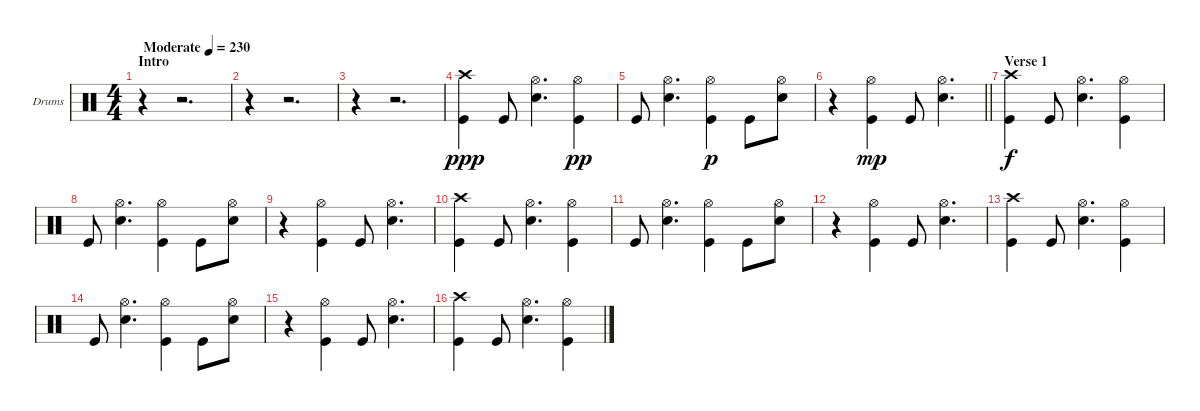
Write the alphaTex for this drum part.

\bracketExtendMode groupsimilarinstruments
\firstSystemTrackNameOrientation horizontal
\otherSystemsTrackNameOrientation horizontal
\track ("Drumkit" "Drums") {instrument percussion}
\staff {score}
\articulation defaults
\ts (4 4)
\beaming (8 2 2 2 2)
\section ("" "Intro")
\tempo (230 "Moderate")
\clef neutral
\ks c
r.4{dy ppp} r.2{d} |
r.4 r.2{d} |
r.4 r.2{d} |
("Crash high (hit)" "Kick (hit)").4 "Kick (hit)".8 ("Hi-Hat (open)" "Snare (hit) 2").4{d} ("Hi-Hat (open)" "Kick (hit)").4{dy pp} |
"Kick (hit)".8 ("Hi-Hat (open)" "Snare (hit) 2").4{d} ("Hi-Hat (open)" "Kick (hit)").4{dy p} "Kick (hit)".8 ("Hi-Hat (open)" "Snare (hit) 2").8 |
\barLineRight lightlight
r.4 ("Hi-Hat (open)" "Kick (hit)").4{dy mp} "Kick (hit)".8 ("Hi-Hat (open)" "Snare (hit) 2").4{d} |
\section ("" "Verse 1")
("Crash high (hit)" "Kick (hit)").4{dy f} "Kick (hit)".8 ("Hi-Hat (open)" "Snare (hit) 2").4{d} ("Hi-Hat (open)" "Kick (hit)").4 |
"Kick (hit)".8 ("Hi-Hat (open)" "Snare (hit) 2").4{d} ("Hi-Hat (open)" "Kick (hit)").4 "Kick (hit)".8 ("Hi-Hat (open)" "Snare (hit) 2").8 |
r.4 ("Hi-Hat (open)" "Kick (hit)").4 "Kick (hit)".8 ("Hi-Hat (open)" "Snare (hit) 2").4{d} |
("Crash high (hit)" "Kick (hit)").4 "Kick (hit)".8 ("Hi-Hat (open)" "Snare (hit) 2").4{d} ("Hi-Hat (open)" "Kick (hit)").4 |
"Kick (hit)".8 ("Hi-Hat (open)" "Snare (hit) 2").4{d} ("Hi-Hat (open)" "Kick (hit)").4 "Kick (hit)".8 ("Hi-Hat (open)" "Snare (hit) 2").8 |
r.4 ("Hi-Hat (open)" "Kick (hit)").4 "Kick (hit)".8 ("Hi-Hat (open)" "Snare (hit) 2").4{d} |
("Crash high (hit)" "Kick (hit)").4 "Kick (hit)".8 ("Hi-Hat (open)" "Snare (hit) 2").4{d} ("Hi-Hat (open)" "Kick (hit)").4 |
"Kick (hit)".8 ("Hi-Hat (open)" "Snare (hit) 2").4{d} ("Hi-Hat (open)" "Kick (hit)").4 "Kick (hit)".8 ("Hi-Hat (open)" "Snare (hit) 2").8 |
r.4 ("Hi-Hat (open)" "Kick (hit)").4 "Kick (hit)".8 ("Hi-Hat (open)" "Snare (hit) 2").4{d} |
("Crash high (hit)" "Kick (hit)").4 "Kick (hit)".8 ("Hi-Hat (open)" "Snare (hit) 2").4{d} ("Hi-Hat (open)" "Kick (hit)").4
